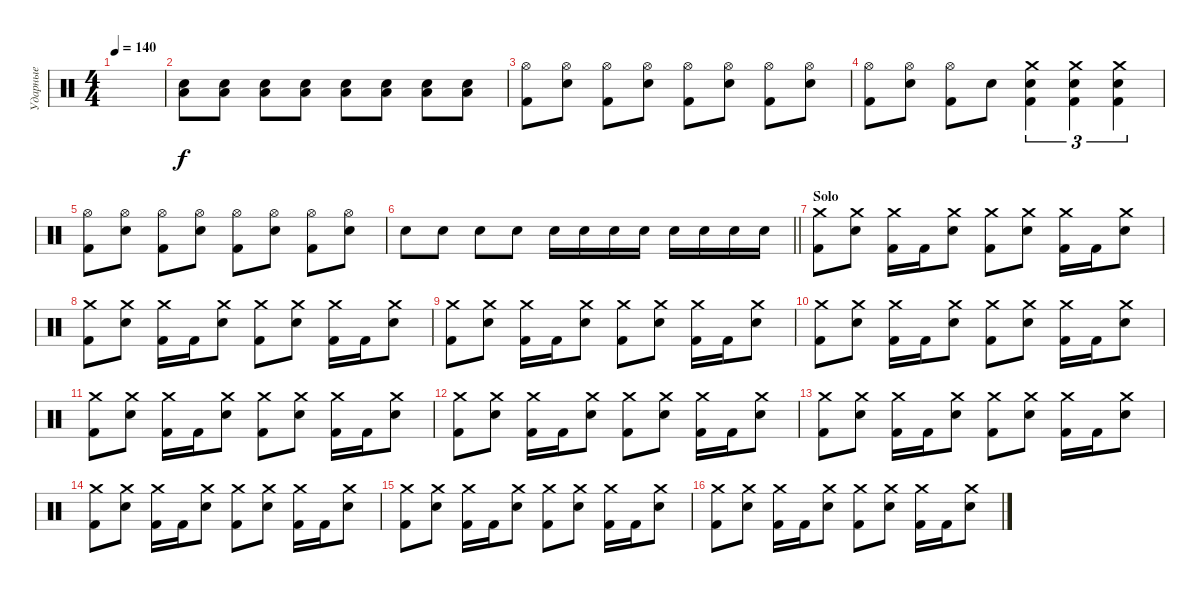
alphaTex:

\track ("Ударные" "Ударные") {instrument percussion}
\staff {score}
\articulation defaults
\ts (4 4)
\tempo 140
\clef neutral
\ks c
|
("Low Floor Tom (hit)" "Electric Snare (hit)").8 ("Low Floor Tom (hit)" "Electric Snare (hit)").8 ("Low Floor Tom (hit)" "Electric Snare (hit)").8 ("Low Floor Tom (hit)" "Electric Snare (hit)").8 ("Low Floor Tom (hit)" "Electric Snare (hit)").8 ("Low Floor Tom (hit)" "Electric Snare (hit)").8 ("Low Floor Tom (hit)" "Electric Snare (hit)").8 ("Low Floor Tom (hit)" "Electric Snare (hit)").8 |
("Hi-Hat (open)" "Kick (hit) 2").8 ("Hi-Hat (open)" "Electric Snare (hit)").8 ("Hi-Hat (open)" "Kick (hit) 2").8 ("Hi-Hat (open)" "Electric Snare (hit)").8 ("Hi-Hat (open)" "Kick (hit) 2").8 ("Hi-Hat (open)" "Electric Snare (hit)").8 ("Hi-Hat (open)" "Kick (hit) 2").8 ("Hi-Hat (open)" "Electric Snare (hit)").8 |
("Hi-Hat (open)" "Kick (hit) 2").8 ("Hi-Hat (open)" "Electric Snare (hit)").8 ("Hi-Hat (open)" "Kick (hit) 2").8 "Electric Snare (hit)".8 ("Crash medium (hit)" "Electric Snare (hit)" "Kick (hit) 2").4{tu (3 2)} ("Crash medium (hit)" "Electric Snare (hit)" "Kick (hit) 2").4{tu (3 2)} ("Crash medium (hit)" "Electric Snare (hit)" "Kick (hit) 2").4{tu (3 2)} |
("Hi-Hat (open)" "Kick (hit) 2").8 ("Hi-Hat (open)" "Electric Snare (hit)").8 ("Hi-Hat (open)" "Kick (hit) 2").8 ("Hi-Hat (open)" "Electric Snare (hit)").8 ("Hi-Hat (open)" "Kick (hit) 2").8 ("Hi-Hat (open)" "Electric Snare (hit)").8 ("Hi-Hat (open)" "Kick (hit) 2").8 ("Hi-Hat (open)" "Electric Snare (hit)").8 |
\barLineRight lightlight "Electric Snare (hit)".8 "Electric Snare (hit)".8 "Electric Snare (hit)".8 "Electric Snare (hit)".8 "Electric Snare (hit)".16 "Electric Snare (hit)".16 "Electric Snare (hit)".16 "Electric Snare (hit)".16 "Electric Snare (hit)".16 "Electric Snare (hit)".16 "Electric Snare (hit)".16 "Electric Snare (hit)".16
|
\section ("" "Solo")
("Crash medium (hit)" "Kick (hit) 2").8 ("Crash medium (hit)" "Electric Snare (hit)").8 ("Crash medium (hit)" "Kick (hit) 2").16 "Kick (hit) 2".16 ("Crash medium (hit)" "Electric Snare (hit)").8 ("Crash medium (hit)" "Kick (hit) 2").8 ("Crash medium (hit)" "Electric Snare (hit)").8 ("Crash medium (hit)" "Kick (hit) 2").16 "Kick (hit) 2".16 ("Crash medium (hit)" "Electric Snare (hit)").8 |
("Crash medium (hit)" "Kick (hit) 2").8 ("Crash medium (hit)" "Electric Snare (hit)").8 ("Crash medium (hit)" "Kick (hit) 2").16 "Kick (hit) 2".16 ("Crash medium (hit)" "Electric Snare (hit)").8 ("Crash medium (hit)" "Kick (hit) 2").8 ("Crash medium (hit)" "Electric Snare (hit)").8 ("Crash medium (hit)" "Kick (hit) 2").16 "Kick (hit) 2".16 ("Crash medium (hit)" "Electric Snare (hit)").8 |
("Crash medium (hit)" "Kick (hit) 2").8 ("Crash medium (hit)" "Electric Snare (hit)").8 ("Crash medium (hit)" "Kick (hit) 2").16 "Kick (hit) 2".16 ("Crash medium (hit)" "Electric Snare (hit)").8 ("Crash medium (hit)" "Kick (hit) 2").8 ("Crash medium (hit)" "Electric Snare (hit)").8 ("Crash medium (hit)" "Kick (hit) 2").16 "Kick (hit) 2".16 ("Crash medium (hit)" "Electric Snare (hit)").8 |
("Crash medium (hit)" "Kick (hit) 2").8 ("Crash medium (hit)" "Electric Snare (hit)").8 ("Crash medium (hit)" "Kick (hit) 2").16 "Kick (hit) 2".16 ("Crash medium (hit)" "Electric Snare (hit)").8 ("Crash medium (hit)" "Kick (hit) 2").8 ("Crash medium (hit)" "Electric Snare (hit)").8 ("Crash medium (hit)" "Kick (hit) 2").16 "Kick (hit) 2".16 ("Crash medium (hit)" "Electric Snare (hit)").8 |
("Crash medium (hit)" "Kick (hit) 2").8 ("Crash medium (hit)" "Electric Snare (hit)").8 ("Crash medium (hit)" "Kick (hit) 2").16 "Kick (hit) 2".16 ("Crash medium (hit)" "Electric Snare (hit)").8 ("Crash medium (hit)" "Kick (hit) 2").8 ("Crash medium (hit)" "Electric Snare (hit)").8 ("Crash medium (hit)" "Kick (hit) 2").16 "Kick (hit) 2".16 ("Crash medium (hit)" "Electric Snare (hit)").8 |
("Crash medium (hit)" "Kick (hit) 2").8 ("Crash medium (hit)" "Electric Snare (hit)").8 ("Crash medium (hit)" "Kick (hit) 2").16 "Kick (hit) 2".16 ("Crash medium (hit)" "Electric Snare (hit)").8 ("Crash medium (hit)" "Kick (hit) 2").8 ("Crash medium (hit)" "Electric Snare (hit)").8 ("Crash medium (hit)" "Kick (hit) 2").16 "Kick (hit) 2".16 ("Crash medium (hit)" "Electric Snare (hit)").8 |
("Crash medium (hit)" "Kick (hit) 2").8 ("Crash medium (hit)" "Electric Snare (hit)").8 ("Crash medium (hit)" "Kick (hit) 2").16 "Kick (hit) 2".16 ("Crash medium (hit)" "Electric Snare (hit)").8 ("Crash medium (hit)" "Kick (hit) 2").8 ("Crash medium (hit)" "Electric Snare (hit)").8 ("Crash medium (hit)" "Kick (hit) 2").16 "Kick (hit) 2".16 ("Crash medium (hit)" "Electric Snare (hit)").8 |
("Crash medium (hit)" "Kick (hit) 2").8 ("Crash medium (hit)" "Electric Snare (hit)").8 ("Crash medium (hit)" "Kick (hit) 2").16 "Kick (hit) 2".16 ("Crash medium (hit)" "Electric Snare (hit)").8 ("Crash medium (hit)" "Kick (hit) 2").8 ("Crash medium (hit)" "Electric Snare (hit)").8 ("Crash medium (hit)" "Kick (hit) 2").16 "Kick (hit) 2".16 ("Crash medium (hit)" "Electric Snare (hit)").8 |
("Crash medium (hit)" "Kick (hit) 2").8 ("Crash medium (hit)" "Electric Snare (hit)").8 ("Crash medium (hit)" "Kick (hit) 2").16 "Kick (hit) 2".16 ("Crash medium (hit)" "Electric Snare (hit)").8 ("Crash medium (hit)" "Kick (hit) 2").8 ("Crash medium (hit)" "Electric Snare (hit)").8 ("Crash medium (hit)" "Kick (hit) 2").16 "Kick (hit) 2".16 ("Crash medium (hit)" "Electric Snare (hit)").8 |
("Crash medium (hit)" "Kick (hit) 2").8 ("Crash medium (hit)" "Electric Snare (hit)").8 ("Crash medium (hit)" "Kick (hit) 2").16 "Kick (hit) 2".16 ("Crash medium (hit)" "Electric Snare (hit)").8 ("Crash medium (hit)" "Kick (hit) 2").8 ("Crash medium (hit)" "Electric Snare (hit)").8 ("Crash medium (hit)" "Kick (hit) 2").16 "Kick (hit) 2".16 ("Crash medium (hit)" "Electric Snare (hit)").8
